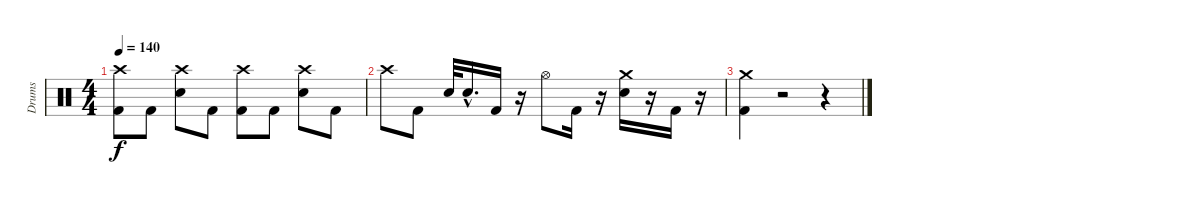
\track ("Drums" "Drums") {instrument percussion}
\staff {score}
\articulation defaults
\ts (4 4)
\tempo 140
\clef neutral
\ks c
("Kick (hit) 2" "Crash high (hit)").8{dy f} "Kick (hit) 2".8 ("Electric Snare (hit)" "Crash high (hit)").8 "Kick (hit) 2".8 ("Kick (hit) 2" "Crash high (hit)").8 "Kick (hit) 2".8 ("Electric Snare (hit)" "Crash high (hit)").8 "Kick (hit) 2".8 |
"Crash high (hit)".8 "Kick (hit) 2".8 "Electric Snare (hit)".32 "Electric Snare (hit)"{hac}.16{d} "Kick (hit) 2".16 r.16 "Hi-Hat (open)".8 "Kick (hit) 2".16 r.16 ("Crash medium (hit)" "Electric Snare (hit)").16 r.16 "Kick (hit) 2".16 r.16 |
("Kick (hit) 2" "Crash medium (hit)").4 r.2 r.4
